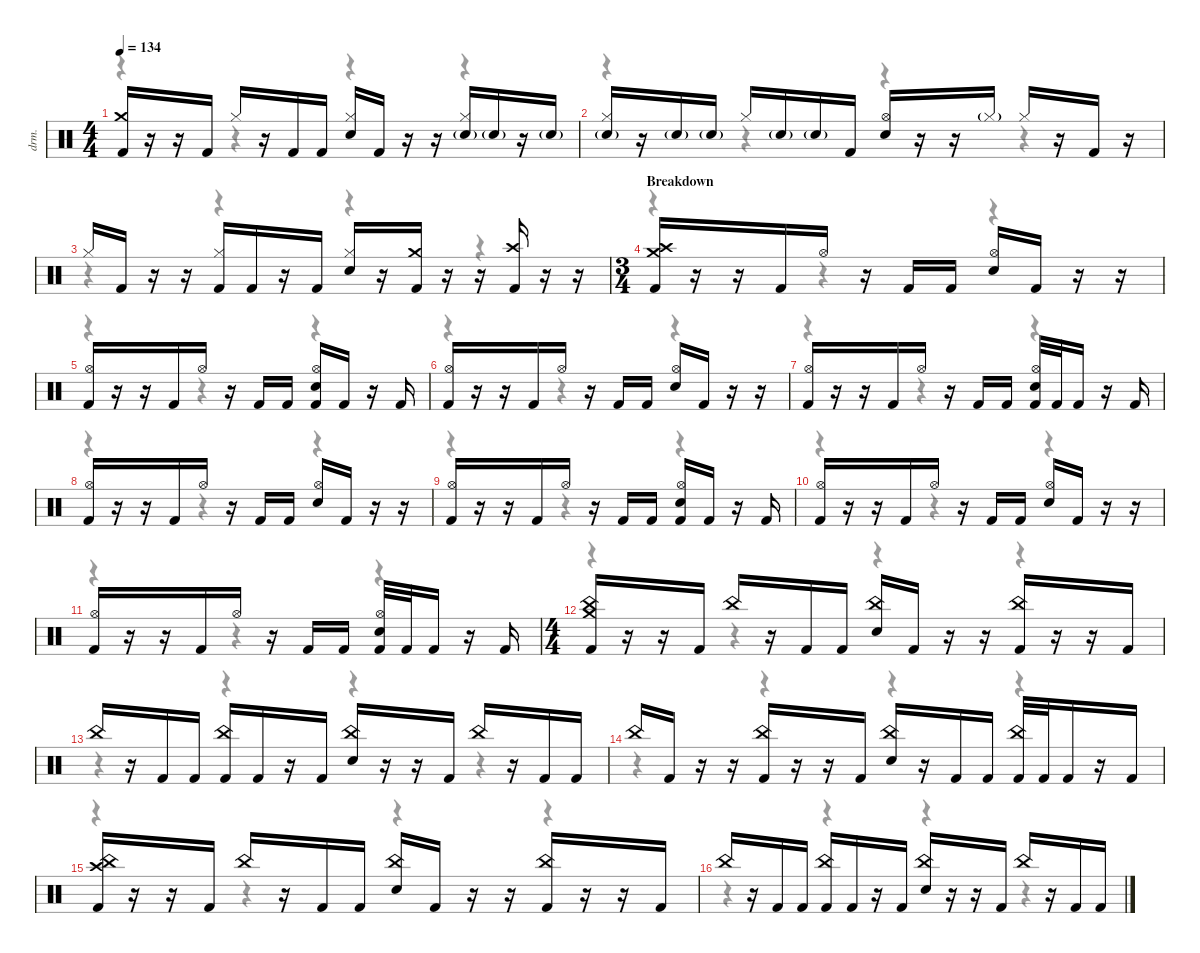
\defaultSystemsLayout 4
\hideDynamics
\bracketExtendMode nobrackets
\track ("Alex Ballew" "drm.") {instrument percussion}
\staff {score}
\articulation defaults
\voice
\ts (4 4)
\beaming (8 2 2 2 2)
\tempo 134
\clef neutral
\ks c
("Crash medium (hit)" "Kick (hit) 2").16{dy f} r.16 r.16 "Kick (hit) 2".16 "Hi-Hat (closed)".16 r.16 "Kick (hit) 2".16 "Kick (hit) 2".16 ("Hi-Hat (closed)" "Snare (hit) 2").16 "Kick (hit) 2".16 r.16 r.16 ("Hi-Hat (closed)" "Snare (hit) 2"{g}).16 "Snare (hit) 2"{g}.16{dy mf} r.16 "Snare (hit) 2"{g}.16 |
("Hi-Hat (closed)" "Snare (hit) 2"{g}).16{dy f} r.16 "Snare (hit) 2"{g}.16{dy mf} "Snare (hit) 2"{g}.16 "Hi-Hat (closed)".16{dy f} "Snare (hit) 2"{g}.16{dy mf} "Snare (hit) 2"{g}.16 "Kick (hit) 2".16{dy f} ("Hi-Hat (open)" "Snare (hit) 2").16 r.16 r.16 "Hi-Hat (closed)"{g}.16{dy ff} "Hi-Hat (closed)".16{dy f} r.16 "Kick (hit) 2".16 r.16 |
"Hi-Hat (closed)".16 "Kick (hit) 2".16 r.16 r.16 ("Hi-Hat (closed)" "Kick (hit) 2").16 "Kick (hit) 2".16 r.16 "Kick (hit) 2".16 ("Hi-Hat (closed)" "Snare (hit) 2").16 r.16 ("Crash medium (hit)" "Kick (hit) 2").16 r.16 r.16 ("Crash high (hit)" "Kick (hit) 2").16 r.16 r.16 |
\ts (3 4)
\beaming (8 3 1 1 1)
\section ("" "Breakdown ")
("Crash medium (hit)" "Crash high (hit)" "Kick (hit) 2").16 r.16 r.16 "Kick (hit) 2".16 "Hi-Hat (open)".16 r.16 "Kick (hit) 2".16 "Kick (hit) 2".16 ("Hi-Hat (open)" "Snare (hit) 2").16 "Kick (hit) 2".16 r.16 r.16 |
("Hi-Hat (open)" "Kick (hit) 2").16 r.16 r.16 "Kick (hit) 2".16 "Hi-Hat (open)".16 r.16 "Kick (hit) 2".16 "Kick (hit) 2".16 ("Hi-Hat (open)" "Snare (hit) 2" "Kick (hit) 2").16 "Kick (hit) 2".16 r.16 "Kick (hit) 2".16 |
("Hi-Hat (open)" "Kick (hit) 2").16 r.16 r.16 "Kick (hit) 2".16 "Hi-Hat (open)".16 r.16 "Kick (hit) 2".16 "Kick (hit) 2".16 ("Hi-Hat (open)" "Snare (hit) 2").16 "Kick (hit) 2".16 r.16 r.16 |
("Hi-Hat (open)" "Kick (hit) 2").16 r.16 r.16 "Kick (hit) 2".16 "Hi-Hat (open)".16 r.16 "Kick (hit) 2".16 "Kick (hit) 2".16 ("Hi-Hat (open)" "Snare (hit) 2" "Kick (hit) 2").32 "Kick (hit) 2".32 "Kick (hit) 2".16 r.16 "Kick (hit) 2".16 |
("Hi-Hat (open)" "Kick (hit) 2").16 r.16 r.16 "Kick (hit) 2".16 "Hi-Hat (open)".16 r.16 "Kick (hit) 2".16 "Kick (hit) 2".16 ("Hi-Hat (open)" "Snare (hit) 2").16 "Kick (hit) 2".16 r.16 r.16 |
("Hi-Hat (open)" "Kick (hit) 2").16 r.16 r.16 "Kick (hit) 2".16 "Hi-Hat (open)".16 r.16 "Kick (hit) 2".16 "Kick (hit) 2".16 ("Hi-Hat (open)" "Snare (hit) 2" "Kick (hit) 2").16 "Kick (hit) 2".16 r.16 "Kick (hit) 2".16 |
("Hi-Hat (open)" "Kick (hit) 2").16 r.16 r.16 "Kick (hit) 2".16 "Hi-Hat (open)".16 r.16 "Kick (hit) 2".16 "Kick (hit) 2".16 ("Hi-Hat (open)" "Snare (hit) 2").16 "Kick (hit) 2".16 r.16 r.16 |
("Hi-Hat (open)" "Kick (hit) 2").16 r.16 r.16 "Kick (hit) 2".16 "Hi-Hat (open)".16 r.16 "Kick (hit) 2".16 "Kick (hit) 2".16 ("Hi-Hat (open)" "Snare (hit) 2" "Kick (hit) 2").32 "Kick (hit) 2".32 "Kick (hit) 2".16 r.16 "Kick (hit) 2".16 |
\ts (4 4)
\beaming (8 2 2 2 2)
("China (hit)" "Crash medium (hit)" "Kick (hit) 2").16 r.16 r.16 "Kick (hit) 2".16 "China (hit)".16 r.16 "Kick (hit) 2".16 "Kick (hit) 2".16 ("China (hit)" "Snare (hit) 2").16 "Kick (hit) 2".16 r.16 r.16 ("China (hit)" "Kick (hit) 2").16 r.16 r.16 "Kick (hit) 2".16 |
"China (hit)".16 r.16 "Kick (hit) 2".16 "Kick (hit) 2".16 ("China (hit)" "Kick (hit) 2").16 "Kick (hit) 2".16 r.16 "Kick (hit) 2".16 ("China (hit)" "Snare (hit) 2").16 r.16 r.16 "Kick (hit) 2".16 "China (hit)".16 r.16 "Kick (hit) 2".16 "Kick (hit) 2".16 |
"China (hit)".16 "Kick (hit) 2".16 r.16 r.16 ("China (hit)" "Kick (hit) 2").16 r.16 r.16 "Kick (hit) 2".16 ("China (hit)" "Snare (hit) 2").16 r.16 "Kick (hit) 2".16 "Kick (hit) 2".16 ("China (hit)" "Kick (hit) 2").32 "Kick (hit) 2".32 "Kick (hit) 2".16 r.16 "Kick (hit) 2".16 |
("China (hit)" "Crash high (hit)" "Kick (hit) 2").16 r.16 r.16 "Kick (hit) 2".16 "China (hit)".16 r.16 "Kick (hit) 2".16 "Kick (hit) 2".16 ("China (hit)" "Snare (hit) 2").16 "Kick (hit) 2".16 r.16 r.16 ("China (hit)" "Kick (hit) 2").16 r.16 r.16 "Kick (hit) 2".16 |
"China (hit)".16 r.16 "Kick (hit) 2".16 "Kick (hit) 2".16 ("China (hit)" "Kick (hit) 2").16 "Kick (hit) 2".16 r.16 "Kick (hit) 2".16 ("China (hit)" "Snare (hit) 2").16 r.16 r.16 "Kick (hit) 2".16 "China (hit)".16 r.16 "Kick (hit) 2".16 "Kick (hit) 2".16
\voice
\clef neutral
\ottava regular
\simile none
\ks c
r.4{dy mf} r.4 r.4 r.4 |
r.4 r.4 r.4 r.4 |
r.4 r.4 r.4 r.4 |
r.4 r.4 r.4 |
r.4 r.4 r.4 |
r.4 r.4 r.4 |
r.4 r.4 r.4 |
r.4 r.4 r.4 |
r.4 r.4 r.4 |
r.4 r.4 r.4 |
r.4 r.4 r.4 |
r.4 r.4 r.4 r.4 |
r.4 r.4 r.4 r.4 |
r.4 r.4 r.4 r.4 |
r.4 r.4 r.4 r.4 |
r.4 r.4 r.4 r.4
